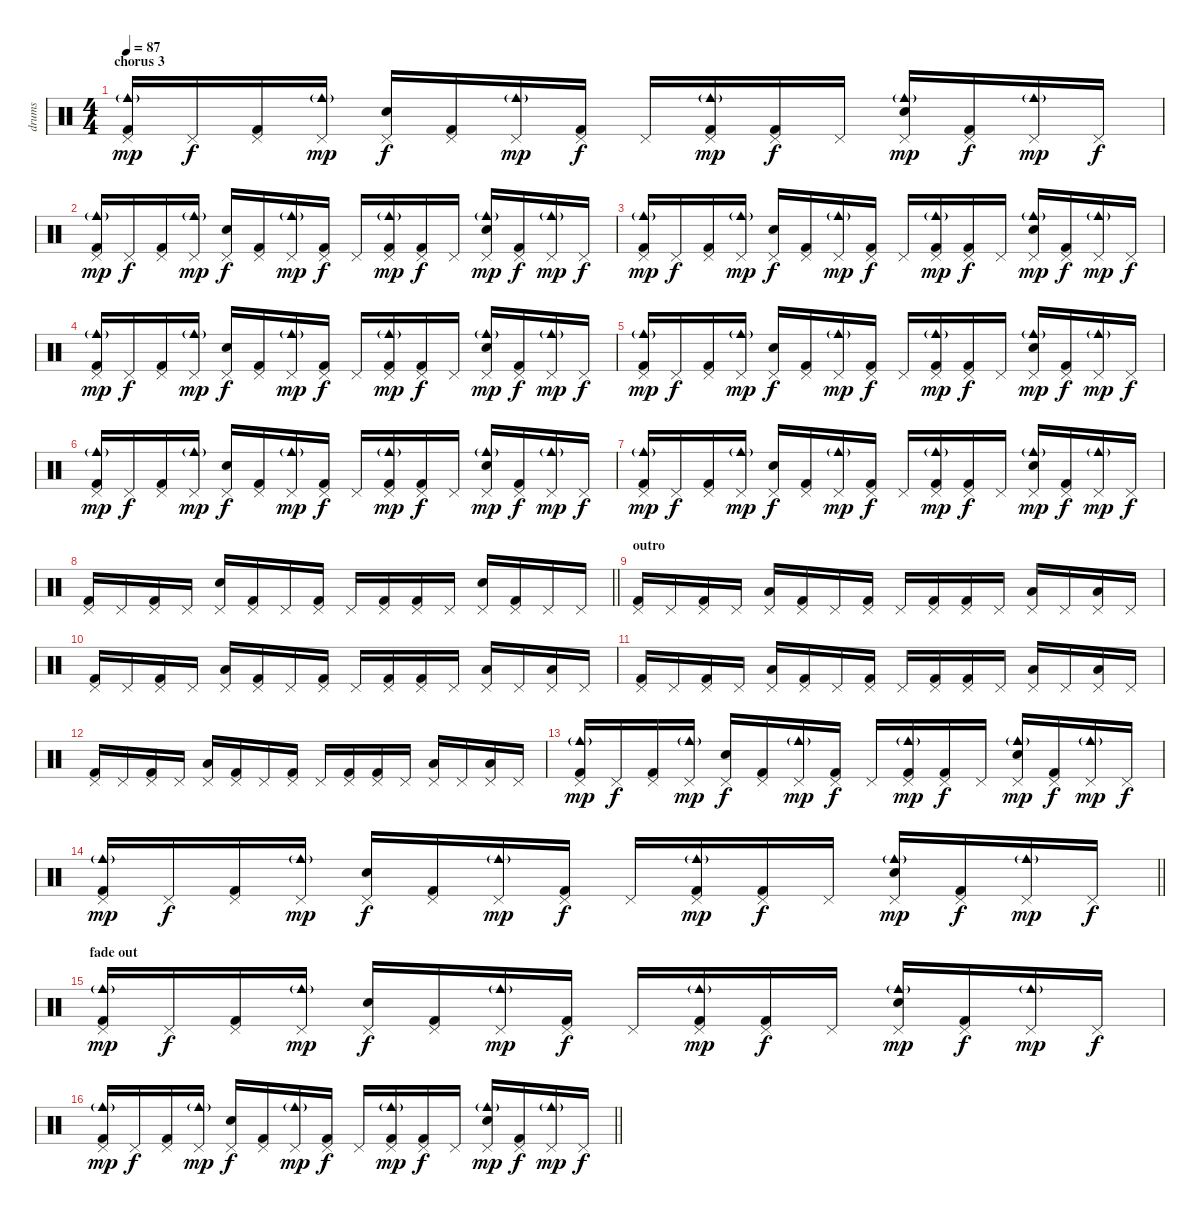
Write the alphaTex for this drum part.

\track ("drums" "drums") {instrument percussion}
\staff {score}
\articulation defaults
\ts (4 4)
\section ("" "chorus 3")
\tempo 87
\clef neutral
\ks c
("Kick (hit) 2" "Pedal Hi-Hat (hit)" "Cowbell medium (hit)"{g}).16{dy mp} "Pedal Hi-Hat (hit)".16{dy f} ("Kick (hit) 2" "Pedal Hi-Hat (hit)").16 ("Pedal Hi-Hat (hit)" "Cowbell medium (hit)"{g}).16{dy mp} ("Snare (hit) 2" "Pedal Hi-Hat (hit)").16{dy f} ("Kick (hit) 2" "Pedal Hi-Hat (hit)").16 ("Pedal Hi-Hat (hit)" "Cowbell medium (hit)"{g}).16{dy mp} ("Kick (hit) 2" "Pedal Hi-Hat (hit)").16{dy f} "Pedal Hi-Hat (hit)".16 ("Kick (hit) 2" "Pedal Hi-Hat (hit)" "Cowbell medium (hit)"{g}).16{dy mp} ("Kick (hit) 2" "Pedal Hi-Hat (hit)").16{dy f} "Pedal Hi-Hat (hit)".16 ("Snare (hit) 2" "Pedal Hi-Hat (hit)" "Cowbell medium (hit)"{g}).16{dy mp} ("Kick (hit) 2" "Pedal Hi-Hat (hit)").16{dy f} ("Pedal Hi-Hat (hit)" "Cowbell medium (hit)"{g}).16{dy mp} "Pedal Hi-Hat (hit)".16{dy f} |
("Kick (hit) 2" "Pedal Hi-Hat (hit)" "Cowbell medium (hit)"{g}).16{dy mp} "Pedal Hi-Hat (hit)".16{dy f} ("Kick (hit) 2" "Pedal Hi-Hat (hit)").16 ("Pedal Hi-Hat (hit)" "Cowbell medium (hit)"{g}).16{dy mp} ("Snare (hit) 2" "Pedal Hi-Hat (hit)").16{dy f} ("Kick (hit) 2" "Pedal Hi-Hat (hit)").16 ("Pedal Hi-Hat (hit)" "Cowbell medium (hit)"{g}).16{dy mp} ("Kick (hit) 2" "Pedal Hi-Hat (hit)").16{dy f} "Pedal Hi-Hat (hit)".16 ("Kick (hit) 2" "Pedal Hi-Hat (hit)" "Cowbell medium (hit)"{g}).16{dy mp} ("Kick (hit) 2" "Pedal Hi-Hat (hit)").16{dy f} "Pedal Hi-Hat (hit)".16 ("Snare (hit) 2" "Pedal Hi-Hat (hit)" "Cowbell medium (hit)"{g}).16{dy mp} ("Kick (hit) 2" "Pedal Hi-Hat (hit)").16{dy f} ("Pedal Hi-Hat (hit)" "Cowbell medium (hit)"{g}).16{dy mp} "Pedal Hi-Hat (hit)".16{dy f} |
("Kick (hit) 2" "Pedal Hi-Hat (hit)" "Cowbell medium (hit)"{g}).16{dy mp} "Pedal Hi-Hat (hit)".16{dy f} ("Kick (hit) 2" "Pedal Hi-Hat (hit)").16 ("Pedal Hi-Hat (hit)" "Cowbell medium (hit)"{g}).16{dy mp} ("Snare (hit) 2" "Pedal Hi-Hat (hit)").16{dy f} ("Kick (hit) 2" "Pedal Hi-Hat (hit)").16 ("Pedal Hi-Hat (hit)" "Cowbell medium (hit)"{g}).16{dy mp} ("Kick (hit) 2" "Pedal Hi-Hat (hit)").16{dy f} "Pedal Hi-Hat (hit)".16 ("Kick (hit) 2" "Pedal Hi-Hat (hit)" "Cowbell medium (hit)"{g}).16{dy mp} ("Kick (hit) 2" "Pedal Hi-Hat (hit)").16{dy f} "Pedal Hi-Hat (hit)".16 ("Snare (hit) 2" "Pedal Hi-Hat (hit)" "Cowbell medium (hit)"{g}).16{dy mp} ("Kick (hit) 2" "Pedal Hi-Hat (hit)").16{dy f} ("Pedal Hi-Hat (hit)" "Cowbell medium (hit)"{g}).16{dy mp} "Pedal Hi-Hat (hit)".16{dy f} |
("Kick (hit) 2" "Pedal Hi-Hat (hit)" "Cowbell medium (hit)"{g}).16{dy mp} "Pedal Hi-Hat (hit)".16{dy f} ("Kick (hit) 2" "Pedal Hi-Hat (hit)").16 ("Pedal Hi-Hat (hit)" "Cowbell medium (hit)"{g}).16{dy mp} ("Snare (hit) 2" "Pedal Hi-Hat (hit)").16{dy f} ("Kick (hit) 2" "Pedal Hi-Hat (hit)").16 ("Pedal Hi-Hat (hit)" "Cowbell medium (hit)"{g}).16{dy mp} ("Kick (hit) 2" "Pedal Hi-Hat (hit)").16{dy f} "Pedal Hi-Hat (hit)".16 ("Kick (hit) 2" "Pedal Hi-Hat (hit)" "Cowbell medium (hit)"{g}).16{dy mp} ("Kick (hit) 2" "Pedal Hi-Hat (hit)").16{dy f} "Pedal Hi-Hat (hit)".16 ("Snare (hit) 2" "Pedal Hi-Hat (hit)" "Cowbell medium (hit)"{g}).16{dy mp} ("Kick (hit) 2" "Pedal Hi-Hat (hit)").16{dy f} ("Pedal Hi-Hat (hit)" "Cowbell medium (hit)"{g}).16{dy mp} "Pedal Hi-Hat (hit)".16{dy f} |
("Kick (hit) 2" "Pedal Hi-Hat (hit)" "Cowbell medium (hit)"{g}).16{dy mp} "Pedal Hi-Hat (hit)".16{dy f} ("Kick (hit) 2" "Pedal Hi-Hat (hit)").16 ("Pedal Hi-Hat (hit)" "Cowbell medium (hit)"{g}).16{dy mp} ("Snare (hit) 2" "Pedal Hi-Hat (hit)").16{dy f} ("Kick (hit) 2" "Pedal Hi-Hat (hit)").16 ("Pedal Hi-Hat (hit)" "Cowbell medium (hit)"{g}).16{dy mp} ("Kick (hit) 2" "Pedal Hi-Hat (hit)").16{dy f} "Pedal Hi-Hat (hit)".16 ("Kick (hit) 2" "Pedal Hi-Hat (hit)" "Cowbell medium (hit)"{g}).16{dy mp} ("Kick (hit) 2" "Pedal Hi-Hat (hit)").16{dy f} "Pedal Hi-Hat (hit)".16 ("Snare (hit) 2" "Pedal Hi-Hat (hit)" "Cowbell medium (hit)"{g}).16{dy mp} ("Kick (hit) 2" "Pedal Hi-Hat (hit)").16{dy f} ("Pedal Hi-Hat (hit)" "Cowbell medium (hit)"{g}).16{dy mp} "Pedal Hi-Hat (hit)".16{dy f} |
("Kick (hit) 2" "Pedal Hi-Hat (hit)" "Cowbell medium (hit)"{g}).16{dy mp} "Pedal Hi-Hat (hit)".16{dy f} ("Kick (hit) 2" "Pedal Hi-Hat (hit)").16 ("Pedal Hi-Hat (hit)" "Cowbell medium (hit)"{g}).16{dy mp} ("Snare (hit) 2" "Pedal Hi-Hat (hit)").16{dy f} ("Kick (hit) 2" "Pedal Hi-Hat (hit)").16 ("Pedal Hi-Hat (hit)" "Cowbell medium (hit)"{g}).16{dy mp} ("Kick (hit) 2" "Pedal Hi-Hat (hit)").16{dy f} "Pedal Hi-Hat (hit)".16 ("Kick (hit) 2" "Pedal Hi-Hat (hit)" "Cowbell medium (hit)"{g}).16{dy mp} ("Kick (hit) 2" "Pedal Hi-Hat (hit)").16{dy f} "Pedal Hi-Hat (hit)".16 ("Snare (hit) 2" "Pedal Hi-Hat (hit)" "Cowbell medium (hit)"{g}).16{dy mp} ("Kick (hit) 2" "Pedal Hi-Hat (hit)").16{dy f} ("Pedal Hi-Hat (hit)" "Cowbell medium (hit)"{g}).16{dy mp} "Pedal Hi-Hat (hit)".16{dy f} |
("Kick (hit) 2" "Pedal Hi-Hat (hit)" "Cowbell medium (hit)"{g}).16{dy mp} "Pedal Hi-Hat (hit)".16{dy f} ("Kick (hit) 2" "Pedal Hi-Hat (hit)").16 ("Pedal Hi-Hat (hit)" "Cowbell medium (hit)"{g}).16{dy mp} ("Snare (hit) 2" "Pedal Hi-Hat (hit)").16{dy f} ("Kick (hit) 2" "Pedal Hi-Hat (hit)").16 ("Pedal Hi-Hat (hit)" "Cowbell medium (hit)"{g}).16{dy mp} ("Kick (hit) 2" "Pedal Hi-Hat (hit)").16{dy f} "Pedal Hi-Hat (hit)".16 ("Kick (hit) 2" "Pedal Hi-Hat (hit)" "Cowbell medium (hit)"{g}).16{dy mp} ("Kick (hit) 2" "Pedal Hi-Hat (hit)").16{dy f} "Pedal Hi-Hat (hit)".16 ("Snare (hit) 2" "Pedal Hi-Hat (hit)" "Cowbell medium (hit)"{g}).16{dy mp} ("Kick (hit) 2" "Pedal Hi-Hat (hit)").16{dy f} ("Pedal Hi-Hat (hit)" "Cowbell medium (hit)"{g}).16{dy mp} "Pedal Hi-Hat (hit)".16{dy f} |
\barLineRight lightlight
("Kick (hit) 2" "Pedal Hi-Hat (hit)").16 "Pedal Hi-Hat (hit)".16 ("Kick (hit) 2" "Pedal Hi-Hat (hit)").16 "Pedal Hi-Hat (hit)".16 ("Snare (hit) 2" "Pedal Hi-Hat (hit)").16 ("Kick (hit) 2" "Pedal Hi-Hat (hit)").16 "Pedal Hi-Hat (hit)".16 ("Kick (hit) 2" "Pedal Hi-Hat (hit)").16 "Pedal Hi-Hat (hit)".16 ("Kick (hit) 2" "Pedal Hi-Hat (hit)").16 ("Kick (hit) 2" "Pedal Hi-Hat (hit)").16 "Pedal Hi-Hat (hit)".16 ("Snare (hit) 2" "Pedal Hi-Hat (hit)").16 ("Kick (hit) 2" "Pedal Hi-Hat (hit)").16 "Pedal Hi-Hat (hit)".16 "Pedal Hi-Hat (hit)".16 |
\section ("" "outro")
("Kick (hit) 2" "Pedal Hi-Hat (hit)").16 "Pedal Hi-Hat (hit)".16 ("Kick (hit) 2" "Pedal Hi-Hat (hit)").16 "Pedal Hi-Hat (hit)".16 ("Low Floor Tom (hit)" "Pedal Hi-Hat (hit)").16 ("Kick (hit) 2" "Pedal Hi-Hat (hit)").16 "Pedal Hi-Hat (hit)".16 ("Kick (hit) 2" "Pedal Hi-Hat (hit)").16 "Pedal Hi-Hat (hit)".16 ("Kick (hit) 2" "Pedal Hi-Hat (hit)").16 ("Kick (hit) 2" "Pedal Hi-Hat (hit)").16 "Pedal Hi-Hat (hit)".16 ("Low Floor Tom (hit)" "Pedal Hi-Hat (hit)").16 "Pedal Hi-Hat (hit)".16 ("Low Floor Tom (hit)" "Pedal Hi-Hat (hit)").16 "Pedal Hi-Hat (hit)".16 |
("Kick (hit) 2" "Pedal Hi-Hat (hit)").16 "Pedal Hi-Hat (hit)".16 ("Kick (hit) 2" "Pedal Hi-Hat (hit)").16 "Pedal Hi-Hat (hit)".16 ("Low Floor Tom (hit)" "Pedal Hi-Hat (hit)").16 ("Kick (hit) 2" "Pedal Hi-Hat (hit)").16 "Pedal Hi-Hat (hit)".16 ("Kick (hit) 2" "Pedal Hi-Hat (hit)").16 "Pedal Hi-Hat (hit)".16 ("Kick (hit) 2" "Pedal Hi-Hat (hit)").16 ("Kick (hit) 2" "Pedal Hi-Hat (hit)").16 "Pedal Hi-Hat (hit)".16 ("Low Floor Tom (hit)" "Pedal Hi-Hat (hit)").16 "Pedal Hi-Hat (hit)".16 ("Low Floor Tom (hit)" "Pedal Hi-Hat (hit)").16 "Pedal Hi-Hat (hit)".16 |
("Kick (hit) 2" "Pedal Hi-Hat (hit)").16 "Pedal Hi-Hat (hit)".16 ("Kick (hit) 2" "Pedal Hi-Hat (hit)").16 "Pedal Hi-Hat (hit)".16 ("Low Floor Tom (hit)" "Pedal Hi-Hat (hit)").16 ("Kick (hit) 2" "Pedal Hi-Hat (hit)").16 "Pedal Hi-Hat (hit)".16 ("Kick (hit) 2" "Pedal Hi-Hat (hit)").16 "Pedal Hi-Hat (hit)".16 ("Kick (hit) 2" "Pedal Hi-Hat (hit)").16 ("Kick (hit) 2" "Pedal Hi-Hat (hit)").16 "Pedal Hi-Hat (hit)".16 ("Low Floor Tom (hit)" "Pedal Hi-Hat (hit)").16 "Pedal Hi-Hat (hit)".16 ("Low Floor Tom (hit)" "Pedal Hi-Hat (hit)").16 "Pedal Hi-Hat (hit)".16 |
("Kick (hit) 2" "Pedal Hi-Hat (hit)").16 "Pedal Hi-Hat (hit)".16 ("Kick (hit) 2" "Pedal Hi-Hat (hit)").16 "Pedal Hi-Hat (hit)".16 ("Low Floor Tom (hit)" "Pedal Hi-Hat (hit)").16 ("Kick (hit) 2" "Pedal Hi-Hat (hit)").16 "Pedal Hi-Hat (hit)".16 ("Kick (hit) 2" "Pedal Hi-Hat (hit)").16 "Pedal Hi-Hat (hit)".16 ("Kick (hit) 2" "Pedal Hi-Hat (hit)").16 ("Kick (hit) 2" "Pedal Hi-Hat (hit)").16 "Pedal Hi-Hat (hit)".16 ("Low Floor Tom (hit)" "Pedal Hi-Hat (hit)").16 "Pedal Hi-Hat (hit)".16 ("Low Floor Tom (hit)" "Pedal Hi-Hat (hit)").16 "Pedal Hi-Hat (hit)".16 |
("Kick (hit) 2" "Pedal Hi-Hat (hit)" "Cowbell medium (hit)"{g}).16{dy mp} "Pedal Hi-Hat (hit)".16{dy f} ("Kick (hit) 2" "Pedal Hi-Hat (hit)").16 ("Pedal Hi-Hat (hit)" "Cowbell medium (hit)"{g}).16{dy mp} ("Snare (hit) 2" "Pedal Hi-Hat (hit)").16{dy f} ("Kick (hit) 2" "Pedal Hi-Hat (hit)").16 ("Pedal Hi-Hat (hit)" "Cowbell medium (hit)"{g}).16{dy mp} ("Kick (hit) 2" "Pedal Hi-Hat (hit)").16{dy f} "Pedal Hi-Hat (hit)".16 ("Kick (hit) 2" "Pedal Hi-Hat (hit)" "Cowbell medium (hit)"{g}).16{dy mp} ("Kick (hit) 2" "Pedal Hi-Hat (hit)").16{dy f} "Pedal Hi-Hat (hit)".16 ("Snare (hit) 2" "Pedal Hi-Hat (hit)" "Cowbell medium (hit)"{g}).16{dy mp} ("Kick (hit) 2" "Pedal Hi-Hat (hit)").16{dy f} ("Pedal Hi-Hat (hit)" "Cowbell medium (hit)"{g}).16{dy mp} "Pedal Hi-Hat (hit)".16{dy f} |
\barLineRight lightlight
("Kick (hit) 2" "Pedal Hi-Hat (hit)" "Cowbell medium (hit)"{g}).16{dy mp} "Pedal Hi-Hat (hit)".16{dy f} ("Kick (hit) 2" "Pedal Hi-Hat (hit)").16 ("Pedal Hi-Hat (hit)" "Cowbell medium (hit)"{g}).16{dy mp} ("Snare (hit) 2" "Pedal Hi-Hat (hit)").16{dy f} ("Kick (hit) 2" "Pedal Hi-Hat (hit)").16 ("Pedal Hi-Hat (hit)" "Cowbell medium (hit)"{g}).16{dy mp} ("Kick (hit) 2" "Pedal Hi-Hat (hit)").16{dy f} "Pedal Hi-Hat (hit)".16 ("Kick (hit) 2" "Pedal Hi-Hat (hit)" "Cowbell medium (hit)"{g}).16{dy mp} ("Kick (hit) 2" "Pedal Hi-Hat (hit)").16{dy f} "Pedal Hi-Hat (hit)".16 ("Snare (hit) 2" "Pedal Hi-Hat (hit)" "Cowbell medium (hit)"{g}).16{dy mp} ("Kick (hit) 2" "Pedal Hi-Hat (hit)").16{dy f} ("Pedal Hi-Hat (hit)" "Cowbell medium (hit)"{g}).16{dy mp} "Pedal Hi-Hat (hit)".16{dy f} |
\section ("" "fade out")
("Kick (hit) 2" "Pedal Hi-Hat (hit)" "Cowbell medium (hit)"{g}).16{dy mp} "Pedal Hi-Hat (hit)".16{dy f} ("Kick (hit) 2" "Pedal Hi-Hat (hit)").16 ("Pedal Hi-Hat (hit)" "Cowbell medium (hit)"{g}).16{dy mp} ("Snare (hit) 2" "Pedal Hi-Hat (hit)").16{dy f} ("Kick (hit) 2" "Pedal Hi-Hat (hit)").16 ("Pedal Hi-Hat (hit)" "Cowbell medium (hit)"{g}).16{dy mp} ("Kick (hit) 2" "Pedal Hi-Hat (hit)").16{dy f} "Pedal Hi-Hat (hit)".16 ("Kick (hit) 2" "Pedal Hi-Hat (hit)" "Cowbell medium (hit)"{g}).16{dy mp} ("Kick (hit) 2" "Pedal Hi-Hat (hit)").16{dy f} "Pedal Hi-Hat (hit)".16 ("Snare (hit) 2" "Pedal Hi-Hat (hit)" "Cowbell medium (hit)"{g}).16{dy mp} ("Kick (hit) 2" "Pedal Hi-Hat (hit)").16{dy f} ("Pedal Hi-Hat (hit)" "Cowbell medium (hit)"{g}).16{dy mp} "Pedal Hi-Hat (hit)".16{dy f} |
\barLineRight lightlight
("Kick (hit) 2" "Pedal Hi-Hat (hit)" "Cowbell medium (hit)"{g}).16{dy mp} "Pedal Hi-Hat (hit)".16{dy f} ("Kick (hit) 2" "Pedal Hi-Hat (hit)").16 ("Pedal Hi-Hat (hit)" "Cowbell medium (hit)"{g}).16{dy mp} ("Snare (hit) 2" "Pedal Hi-Hat (hit)").16{dy f} ("Kick (hit) 2" "Pedal Hi-Hat (hit)").16 ("Pedal Hi-Hat (hit)" "Cowbell medium (hit)"{g}).16{dy mp} ("Kick (hit) 2" "Pedal Hi-Hat (hit)").16{dy f} "Pedal Hi-Hat (hit)".16 ("Kick (hit) 2" "Pedal Hi-Hat (hit)" "Cowbell medium (hit)"{g}).16{dy mp} ("Kick (hit) 2" "Pedal Hi-Hat (hit)").16{dy f} "Pedal Hi-Hat (hit)".16 ("Snare (hit) 2" "Pedal Hi-Hat (hit)" "Cowbell medium (hit)"{g}).16{dy mp} ("Kick (hit) 2" "Pedal Hi-Hat (hit)").16{dy f} ("Pedal Hi-Hat (hit)" "Cowbell medium (hit)"{g}).16{dy mp} "Pedal Hi-Hat (hit)".16{dy f}
